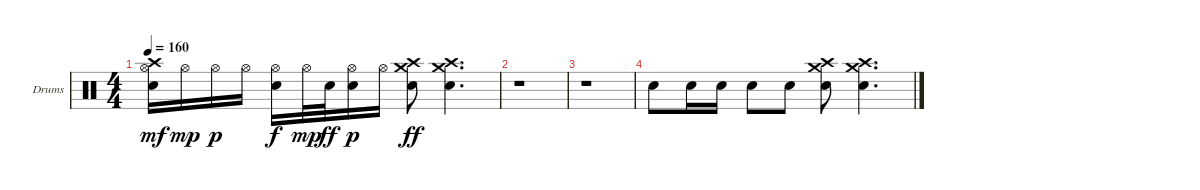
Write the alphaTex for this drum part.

\bracketExtendMode groupsimilarinstruments
\firstSystemTrackNameOrientation horizontal
\otherSystemsTrackNameOrientation horizontal
\track ("Drumkit" "Drums") {instrument percussion}
\staff {score}
\articulation defaults
\ts (4 4)
\tempo 160
\clef neutral
\ks c
("Crash high (hit)" "Hi-Hat (open)" "Snare (hit) 2").16{dy mf} "Hi-Hat (open)".16{dy mp} "Hi-Hat (open)".16{dy p} "Hi-Hat (open)".16 ("Hi-Hat (open)" "Snare (hit) 2").16{dy f} "Hi-Hat (open)".32{dy mp} "Snare (hit) 2".32{dy ff} ("Hi-Hat (open)" "Snare (hit) 2").16{dy p} "Hi-Hat (open)".16 ("Crash medium (hit)" "Crash high (hit)" "Snare (hit) 2").8{dy ff} ("Crash medium (hit)" "Crash high (hit)" "Snare (hit) 2").4{d} |
r.1 |
r.1 |
"Snare (hit) 2".8 "Snare (hit) 2".16 "Snare (hit) 2".16 "Snare (hit) 2".8 "Snare (hit) 2".8 ("Crash medium (hit)" "Crash high (hit)" "Snare (hit) 2").8 ("Crash medium (hit)" "Crash high (hit)" "Snare (hit) 2").4{d}
